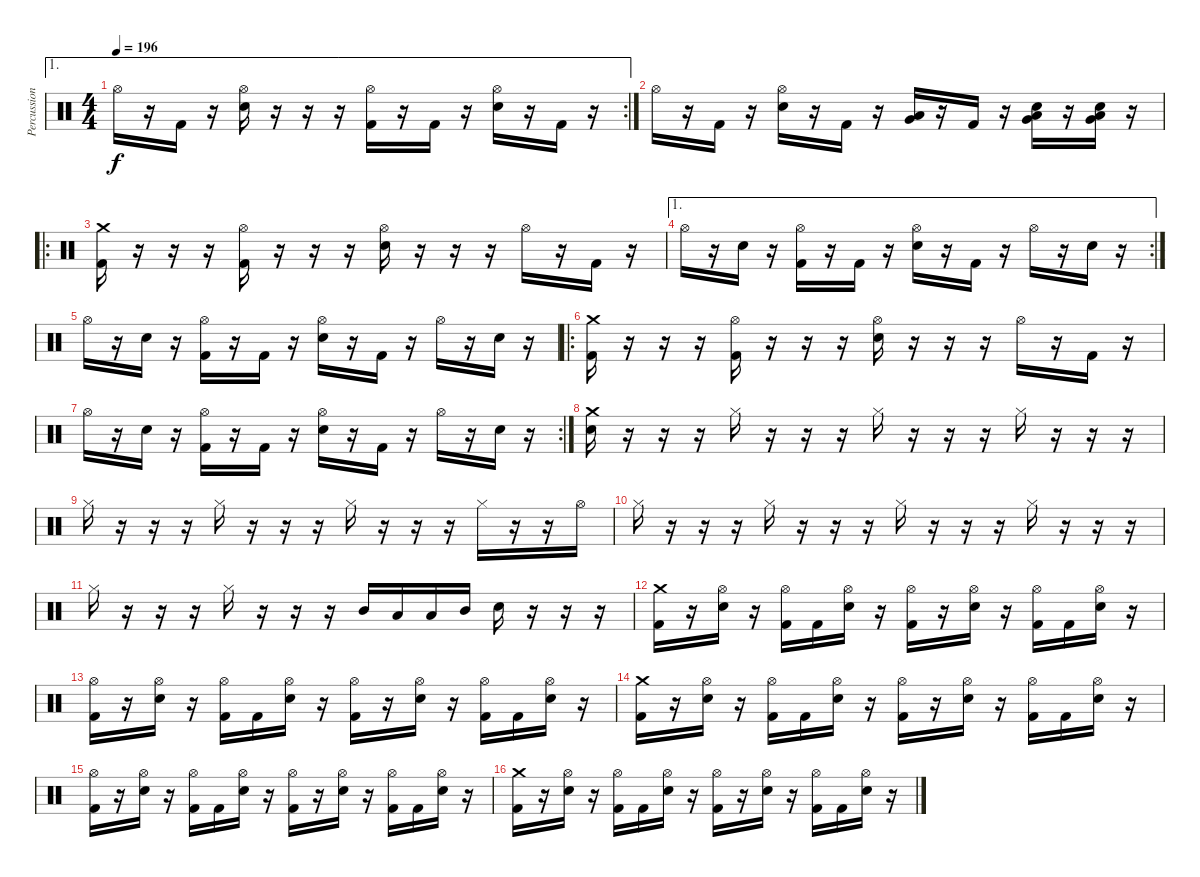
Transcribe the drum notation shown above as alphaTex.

\track ("Percussion" "Percussion") {instrument percussion}
\staff {score}
\articulation defaults
\ae 1
\rc 2
\ts (4 4)
\tempo 196
\clef neutral
\ks c "Hi-Hat (open)".16{dy f}
r.16 "Kick (hit) 2".16 r.16 ("Hi-Hat (open)" "Electric Snare (hit)").16 r.16 r.16 r.16 ("Hi-Hat (open)" "Kick (hit) 2").16 r.16 "Kick (hit) 2".16 r.16 ("Hi-Hat (open)" "Electric Snare (hit)").16 r.16 "Kick (hit) 2".16 r.16 |
"Hi-Hat (open)".16 r.16 "Kick (hit) 2".16 r.16 ("Hi-Hat (open)" "Electric Snare (hit)").16 r.16 "Kick (hit) 2".16 r.16 ("Very Low Tom (hit)" "Low Tom (hit)").16 r.16 "Kick (hit) 2".16 r.16 ("Electric Snare (hit)" "Low Floor Tom (hit)" "Very Low Tom (hit)").16 r.16 ("Electric Snare (hit)" "Low Floor Tom (hit)" "Very Low Tom (hit)").16 r.16 |
\ro
("Crash medium (hit)" "Kick (hit) 2").16 r.16 r.16 r.16 ("Hi-Hat (open)" "Kick (hit) 2").16 r.16 r.16 r.16 ("Hi-Hat (open)" "Electric Snare (hit)").16 r.16 r.16 r.16 "Hi-Hat (open)".16 r.16 "Kick (hit) 2".16 r.16 |
\ae 1
\rc 2 "Hi-Hat (open)".16
r.16 "Electric Snare (hit)".16 r.16 ("Hi-Hat (open)" "Kick (hit) 2").16 r.16 "Kick (hit) 2".16 r.16 ("Hi-Hat (open)" "Electric Snare (hit)").16 r.16 "Kick (hit) 2".16 r.16 "Hi-Hat (open)".16 r.16 "Electric Snare (hit)".16 r.16 |
"Hi-Hat (open)".16 r.16 "Electric Snare (hit)".16 r.16 ("Hi-Hat (open)" "Kick (hit) 2").16 r.16 "Kick (hit) 2".16 r.16 ("Hi-Hat (open)" "Electric Snare (hit)").16 r.16 "Kick (hit) 2".16 r.16 "Hi-Hat (open)".16 r.16 "Electric Snare (hit)".16 r.16 |
\ro
("Crash medium (hit)" "Kick (hit) 2").16 r.16 r.16 r.16 ("Hi-Hat (open)" "Kick (hit) 2").16 r.16 r.16 r.16 ("Hi-Hat (open)" "Electric Snare (hit)").16 r.16 r.16 r.16 "Hi-Hat (open)".16 r.16 "Kick (hit) 2".16 r.16 |
\rc 2 "Hi-Hat (open)".16
r.16 "Electric Snare (hit)".16 r.16 ("Hi-Hat (open)" "Kick (hit) 2").16 r.16 "Kick (hit) 2".16 r.16 ("Hi-Hat (open)" "Electric Snare (hit)").16 r.16 "Kick (hit) 2".16 r.16 "Hi-Hat (open)".16 r.16 "Electric Snare (hit)".16 r.16 |
("Crash medium (hit)" "Electric Snare (hit)").16 r.16 r.16 r.16 "Hi-Hat (closed)".16 r.16 r.16 r.16 "Hi-Hat (closed)".16 r.16 r.16 r.16 "Hi-Hat (closed)".16 r.16 r.16 r.16 |
"Hi-Hat (closed)".16 r.16 r.16 r.16 "Hi-Hat (closed)".16 r.16 r.16 r.16 "Hi-Hat (closed)".16 r.16 r.16 r.16 "Hi-Hat (closed)".16 r.16 r.16 "Hi-Hat (open)".16 |
"Hi-Hat (closed)".16 r.16 r.16 r.16 "Hi-Hat (closed)".16 r.16 r.16 r.16 "Hi-Hat (closed)".16 r.16 r.16 r.16 "Hi-Hat (closed)".16 r.16 r.16 r.16 |
"Hi-Hat (closed)".16 r.16 r.16 r.16 "Hi-Hat (closed)".16 r.16 r.16 r.16 "Mid Tom (hit)".16 "Low Tom (hit)".16 "Low Tom (hit)".16 "Mid Tom (hit)".16 "Electric Snare (hit)".16 r.16 r.16 r.16 |
("Crash medium (hit)" "Kick (hit) 2").16 r.16 ("Hi-Hat (open)" "Electric Snare (hit)").16 r.16 ("Hi-Hat (open)" "Kick (hit) 2").16 "Kick (hit) 2".16 ("Hi-Hat (open)" "Electric Snare (hit)").16 r.16 ("Hi-Hat (open)" "Kick (hit) 2").16 r.16 ("Hi-Hat (open)" "Electric Snare (hit)").16 r.16 ("Hi-Hat (open)" "Kick (hit) 2").16 "Kick (hit) 2".16 ("Hi-Hat (open)" "Electric Snare (hit)").16 r.16 |
("Hi-Hat (open)" "Kick (hit) 2").16 r.16 ("Hi-Hat (open)" "Electric Snare (hit)").16 r.16 ("Hi-Hat (open)" "Kick (hit) 2").16 "Kick (hit) 2".16 ("Hi-Hat (open)" "Electric Snare (hit)").16 r.16 ("Hi-Hat (open)" "Kick (hit) 2").16 r.16 ("Hi-Hat (open)" "Electric Snare (hit)").16 r.16 ("Hi-Hat (open)" "Kick (hit) 2").16 "Kick (hit) 2".16 ("Hi-Hat (open)" "Electric Snare (hit)").16 r.16 |
("Crash medium (hit)" "Kick (hit) 2").16 r.16 ("Hi-Hat (open)" "Electric Snare (hit)").16 r.16 ("Hi-Hat (open)" "Kick (hit) 2").16 "Kick (hit) 2".16 ("Hi-Hat (open)" "Electric Snare (hit)").16 r.16 ("Hi-Hat (open)" "Kick (hit) 2").16 r.16 ("Hi-Hat (open)" "Electric Snare (hit)").16 r.16 ("Hi-Hat (open)" "Kick (hit) 2").16 "Kick (hit) 2".16 ("Hi-Hat (open)" "Electric Snare (hit)").16 r.16 |
("Hi-Hat (open)" "Kick (hit) 2").16 r.16 ("Hi-Hat (open)" "Electric Snare (hit)").16 r.16 ("Hi-Hat (open)" "Kick (hit) 2").16 "Kick (hit) 2".16 ("Hi-Hat (open)" "Electric Snare (hit)").16 r.16 ("Hi-Hat (open)" "Kick (hit) 2").16 r.16 ("Hi-Hat (open)" "Electric Snare (hit)").16 r.16 ("Hi-Hat (open)" "Kick (hit) 2").16 "Kick (hit) 2".16 ("Hi-Hat (open)" "Electric Snare (hit)").16 r.16 |
("Crash medium (hit)" "Kick (hit) 2").16 r.16 ("Hi-Hat (open)" "Electric Snare (hit)").16 r.16 ("Hi-Hat (open)" "Kick (hit) 2").16 "Kick (hit) 2".16 ("Hi-Hat (open)" "Electric Snare (hit)").16 r.16 ("Hi-Hat (open)" "Kick (hit) 2").16 r.16 ("Hi-Hat (open)" "Electric Snare (hit)").16 r.16 ("Hi-Hat (open)" "Kick (hit) 2").16 "Kick (hit) 2".16 ("Hi-Hat (open)" "Electric Snare (hit)").16 r.16
